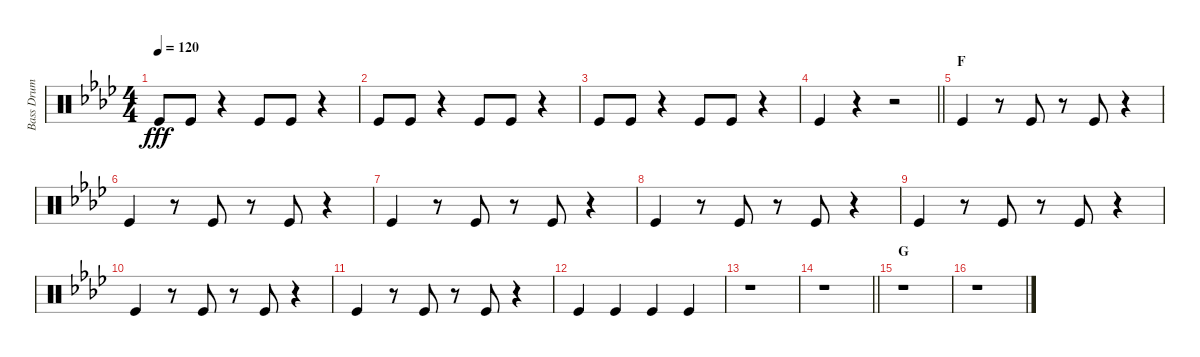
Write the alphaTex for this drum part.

\track ("Bass Drum" "Bass Drum") {instrument percussion}
\staff {score}
\articulation defaults
\ts (4 4)
\tempo 120
\clef neutral
\ks ab "Kick (hit)".8{dy fff} "Kick (hit)".8
r.4 "Kick (hit)".8 "Kick (hit)".8 r.4 |
"Kick (hit)".8 "Kick (hit)".8 r.4 "Kick (hit)".8 "Kick (hit)".8 r.4 |
"Kick (hit)".8 "Kick (hit)".8 r.4 "Kick (hit)".8 "Kick (hit)".8 r.4 |
\barLineRight lightlight "Kick (hit)".4
r.4 r.2 |
\section ("" "F")
"Kick (hit)".4 r.8 "Kick (hit)".8 r.8 "Kick (hit)".8 r.4 |
"Kick (hit)".4 r.8 "Kick (hit)".8 r.8 "Kick (hit)".8 r.4 |
"Kick (hit)".4 r.8 "Kick (hit)".8 r.8 "Kick (hit)".8 r.4 |
"Kick (hit)".4 r.8 "Kick (hit)".8 r.8 "Kick (hit)".8 r.4 |
"Kick (hit)".4 r.8 "Kick (hit)".8 r.8 "Kick (hit)".8 r.4 |
"Kick (hit)".4 r.8 "Kick (hit)".8 r.8 "Kick (hit)".8 r.4 |
"Kick (hit)".4 r.8 "Kick (hit)".8 r.8 "Kick (hit)".8 r.4 |
"Kick (hit)".4 "Kick (hit)".4 "Kick (hit)".4 "Kick (hit)".4 |
r.1 |
\barLineRight lightlight
r.1 |
\section ("" "G")
r.1 |
r.1
